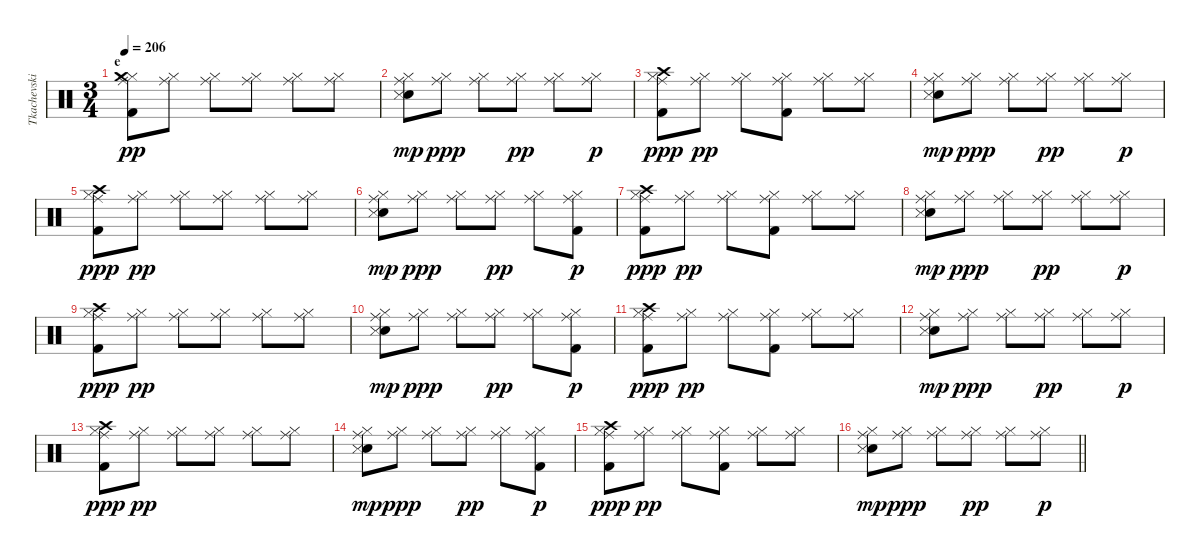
\track ("Tkachevskiy A" "Tkachevski") {instrument percussion}
\staff {score}
\articulation defaults
\ts (3 4)
\section ("" "e")
\tempo 206
\clef neutral
\ks c
("Ride (middle)" "Hi-Hat (closed)" "Crash medium (hit)" "Kick (hit) 2").8{dy pp} ("Ride (middle)" "Hi-Hat (closed)").8 ("Ride (middle)" "Hi-Hat (closed)").8 ("Ride (middle)" "Hi-Hat (closed)").8 ("Ride (middle)" "Hi-Hat (closed)").8 ("Ride (middle)" "Hi-Hat (closed)").8 |
("Ride (middle)" "Hi-Hat (closed)" "Snare (hit) 2" "Snare (side stick) 3").8{dy mp} ("Ride (middle)" "Hi-Hat (closed)").8{dy ppp} ("Ride (middle)" "Hi-Hat (closed)").8 ("Ride (middle)" "Hi-Hat (closed)").8{dy pp} ("Ride (middle)" "Hi-Hat (closed)").8 ("Ride (middle)" "Hi-Hat (closed)").8{dy p} |
("Ride (middle)" "Hi-Hat (closed)" "Crash high (hit)" "Kick (hit) 2").8{dy ppp} ("Ride (middle)" "Hi-Hat (closed)").8{dy pp} ("Ride (middle)" "Hi-Hat (closed)").8 ("Ride (middle)" "Hi-Hat (closed)" "Kick (hit) 2").8 ("Ride (middle)" "Hi-Hat (closed)").8 ("Ride (middle)" "Hi-Hat (closed)").8 |
("Ride (middle)" "Hi-Hat (closed)" "Snare (hit) 2" "Snare (side stick) 3").8{dy mp} ("Ride (middle)" "Hi-Hat (closed)").8{dy ppp} ("Ride (middle)" "Hi-Hat (closed)").8 ("Ride (middle)" "Hi-Hat (closed)").8{dy pp} ("Ride (middle)" "Hi-Hat (closed)").8 ("Ride (middle)" "Hi-Hat (closed)").8{dy p} |
("Ride (middle)" "Hi-Hat (closed)" "Crash high (hit)" "Kick (hit) 2").8{dy ppp} ("Ride (middle)" "Hi-Hat (closed)").8{dy pp} ("Ride (middle)" "Hi-Hat (closed)").8 ("Ride (middle)" "Hi-Hat (closed)").8 ("Ride (middle)" "Hi-Hat (closed)").8 ("Ride (middle)" "Hi-Hat (closed)").8 |
("Ride (middle)" "Hi-Hat (closed)" "Snare (hit) 2" "Snare (side stick) 3").8{dy mp} ("Ride (middle)" "Hi-Hat (closed)").8{dy ppp} ("Ride (middle)" "Hi-Hat (closed)").8 ("Ride (middle)" "Hi-Hat (closed)").8{dy pp} ("Ride (middle)" "Hi-Hat (closed)").8 ("Ride (middle)" "Hi-Hat (closed)" "Kick (hit) 2").8{dy p} |
("Ride (middle)" "Hi-Hat (closed)" "Crash high (hit)" "Kick (hit) 2").8{dy ppp} ("Ride (middle)" "Hi-Hat (closed)").8{dy pp} ("Ride (middle)" "Hi-Hat (closed)").8 ("Ride (middle)" "Hi-Hat (closed)" "Kick (hit) 2").8 ("Ride (middle)" "Hi-Hat (closed)").8 ("Ride (middle)" "Hi-Hat (closed)").8 |
("Ride (middle)" "Hi-Hat (closed)" "Snare (hit) 2" "Snare (side stick) 3").8{dy mp} ("Ride (middle)" "Hi-Hat (closed)").8{dy ppp} ("Ride (middle)" "Hi-Hat (closed)").8 ("Ride (middle)" "Hi-Hat (closed)").8{dy pp} ("Ride (middle)" "Hi-Hat (closed)").8 ("Ride (middle)" "Hi-Hat (closed)").8{dy p} |
("Ride (middle)" "Hi-Hat (closed)" "Crash high (hit)" "Kick (hit) 2").8{dy ppp} ("Ride (middle)" "Hi-Hat (closed)").8{dy pp} ("Ride (middle)" "Hi-Hat (closed)").8 ("Ride (middle)" "Hi-Hat (closed)").8 ("Ride (middle)" "Hi-Hat (closed)").8 ("Ride (middle)" "Hi-Hat (closed)").8 |
("Ride (middle)" "Hi-Hat (closed)" "Snare (hit) 2" "Snare (side stick) 3").8{dy mp} ("Ride (middle)" "Hi-Hat (closed)").8{dy ppp} ("Ride (middle)" "Hi-Hat (closed)").8 ("Ride (middle)" "Hi-Hat (closed)").8{dy pp} ("Ride (middle)" "Hi-Hat (closed)").8 ("Ride (middle)" "Hi-Hat (closed)" "Kick (hit) 2").8{dy p} |
("Ride (middle)" "Hi-Hat (closed)" "Crash high (hit)" "Kick (hit) 2").8{dy ppp} ("Ride (middle)" "Hi-Hat (closed)").8{dy pp} ("Ride (middle)" "Hi-Hat (closed)").8 ("Ride (middle)" "Hi-Hat (closed)" "Kick (hit) 2").8 ("Ride (middle)" "Hi-Hat (closed)").8 ("Ride (middle)" "Hi-Hat (closed)").8 |
("Ride (middle)" "Hi-Hat (closed)" "Snare (hit) 2" "Snare (side stick) 3").8{dy mp} ("Ride (middle)" "Hi-Hat (closed)").8{dy ppp} ("Ride (middle)" "Hi-Hat (closed)").8 ("Ride (middle)" "Hi-Hat (closed)").8{dy pp} ("Ride (middle)" "Hi-Hat (closed)").8 ("Ride (middle)" "Hi-Hat (closed)").8{dy p} |
("Ride (middle)" "Hi-Hat (closed)" "Crash high (hit)" "Kick (hit) 2").8{dy ppp} ("Ride (middle)" "Hi-Hat (closed)").8{dy pp} ("Ride (middle)" "Hi-Hat (closed)").8 ("Ride (middle)" "Hi-Hat (closed)").8 ("Ride (middle)" "Hi-Hat (closed)").8 ("Ride (middle)" "Hi-Hat (closed)").8 |
("Ride (middle)" "Hi-Hat (closed)" "Snare (hit) 2" "Snare (side stick) 3").8{dy mp} ("Ride (middle)" "Hi-Hat (closed)").8{dy ppp} ("Ride (middle)" "Hi-Hat (closed)").8 ("Ride (middle)" "Hi-Hat (closed)").8{dy pp} ("Ride (middle)" "Hi-Hat (closed)").8 ("Ride (middle)" "Hi-Hat (closed)" "Kick (hit) 2").8{dy p} |
("Ride (middle)" "Hi-Hat (closed)" "Crash high (hit)" "Kick (hit) 2").8{dy ppp} ("Ride (middle)" "Hi-Hat (closed)").8{dy pp} ("Ride (middle)" "Hi-Hat (closed)").8 ("Ride (middle)" "Hi-Hat (closed)" "Kick (hit) 2").8 ("Ride (middle)" "Hi-Hat (closed)").8 ("Ride (middle)" "Hi-Hat (closed)").8 |
\barLineRight lightlight
("Ride (middle)" "Hi-Hat (closed)" "Snare (hit) 2" "Snare (side stick) 3").8{dy mp} ("Ride (middle)" "Hi-Hat (closed)").8{dy ppp} ("Ride (middle)" "Hi-Hat (closed)").8 ("Ride (middle)" "Hi-Hat (closed)").8{dy pp} ("Ride (middle)" "Hi-Hat (closed)").8 ("Ride (middle)" "Hi-Hat (closed)").8{dy p}
